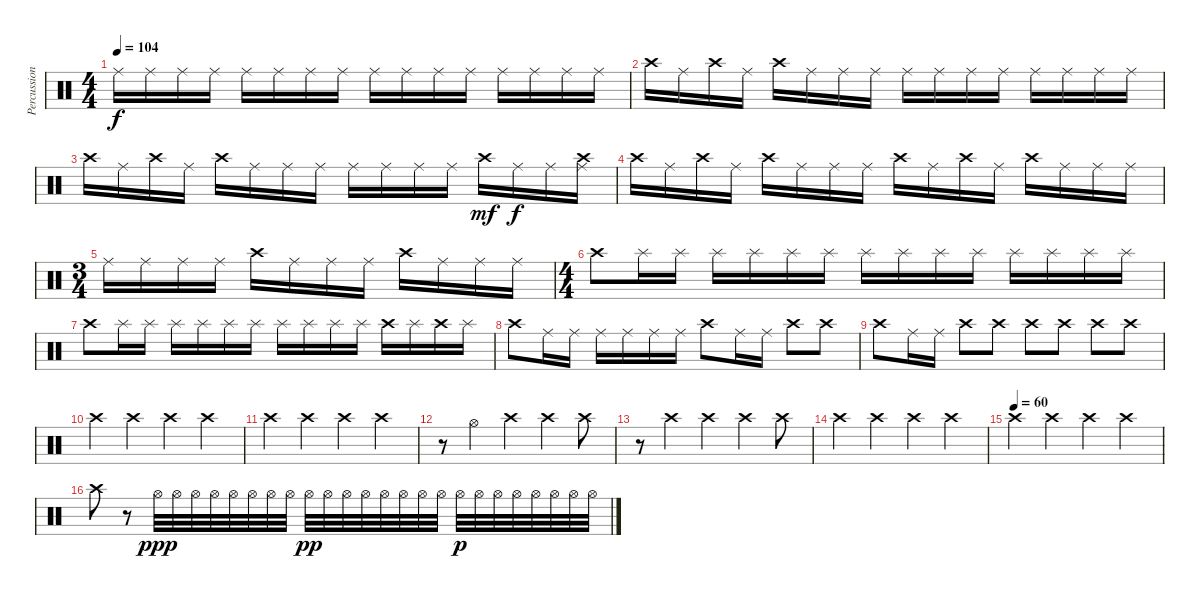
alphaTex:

\track ("Percussion2" "Percussion") {instrument percussion}
\staff {score}
\articulation defaults
\ts (4 4)
\tempo 104
\clef neutral
\ks c "Ride (middle)".16{dy f} "Ride (middle)".16 "Ride (middle)".16 "Ride (middle)".16 "Ride (middle)".16 "Ride (middle)".16 "Ride (middle)".16 "Ride (middle)".16 "Ride (middle)".16 "Ride (middle)".16 "Ride (middle)".16 "Ride (middle)".16 "Ride (middle)".16 "Ride (middle)".16 "Ride (middle)".16 "Ride (middle)".16
|
"Crash high (hit)".16 "Ride (middle)".16 "Crash high (hit)".16 "Ride (middle)".16 "Crash high (hit)".16 "Ride (middle)".16 "Ride (middle)".16 "Ride (middle)".16 "Ride (middle)".16 "Ride (middle)".16 "Ride (middle)".16 "Ride (middle)".16 "Ride (middle)".16 "Ride (middle)".16 "Ride (middle)".16 "Ride (middle)".16 |
"Crash high (hit)".16 "Ride (middle)".16 "Crash high (hit)".16 "Ride (middle)".16 "Crash high (hit)".16 "Ride (middle)".16 "Ride (middle)".16 "Ride (middle)".16 "Ride (middle)".16 "Ride (middle)".16 "Ride (middle)".16 "Ride (middle)".16 "Crash high (hit)".16{dy mf} "Ride (middle)".16{dy f} "Ride (middle)".16 ("Crash high (hit)" "Ride (middle)").16 |
"Crash high (hit)".16 "Ride (middle)".16 "Crash high (hit)".16 "Ride (middle)".16 "Crash high (hit)".16 "Ride (middle)".16 "Ride (middle)".16 "Ride (middle)".16 "Crash high (hit)".16 "Ride (middle)".16 "Crash high (hit)".16 "Ride (middle)".16 "Crash high (hit)".16 "Ride (middle)".16 "Ride (middle)".16 "Ride (middle)".16 |
\ts (3 4)
"Ride (middle)".16 "Ride (middle)".16 "Ride (middle)".16 "Ride (middle)".16 "Crash high (hit)".16 "Ride (middle)".16 "Ride (middle)".16 "Ride (middle)".16 "Crash high (hit)".16 "Ride (middle)".16 "Ride (middle)".16 "Ride (middle)".16 |
\ts (4 4)
"Crash high (hit)".8 "Splash (hit)".16 "Splash (hit)".16 "Splash (hit)".16 "Splash (hit)".16 "Splash (hit)".16 "Splash (hit)".16 "Splash (hit)".16 "Splash (hit)".16 "Splash (hit)".16 "Splash (hit)".16 "Splash (hit)".16 "Splash (hit)".16 "Splash (hit)".16 "Splash (hit)".16 |
"Crash high (hit)".8 "Splash (hit)".16 "Splash (hit)".16 "Splash (hit)".16 "Splash (hit)".16 "Splash (hit)".16 "Splash (hit)".16 "Splash (hit)".16 "Splash (hit)".16 "Splash (hit)".16 "Splash (hit)".16 "Crash high (hit)".16 "Splash (hit)".16 "Crash high (hit)".16 "Splash (hit)".16 |
"Crash high (hit)".8 "Ride (middle)".16 "Ride (middle)".16 "Ride (middle)".16 "Ride (middle)".16 "Ride (middle)".16 "Ride (middle)".16 "Crash high (hit)".8 "Ride (middle)".16 "Ride (middle)".16 "Crash high (hit)".8 "Crash high (hit)".8 |
"Crash high (hit)".8 "Ride (middle)".16 "Ride (middle)".16 "Crash high (hit)".8 "Crash high (hit)".8 "Crash high (hit)".8 "Crash high (hit)".8 "Crash high (hit)".8 "Crash high (hit)".8 |
"Crash high (hit)".4 "Crash high (hit)".4 "Crash high (hit)".4 "Crash high (hit)".4 |
"Crash high (hit)".4 "Crash high (hit)".4 "Crash high (hit)".4 "Crash high (hit)".4 |
r.8 "Hi-Hat (open)".4 "Crash high (hit)".4 "Crash high (hit)".4 "Crash high (hit)".8 |
r.8 "Crash high (hit)".4 "Crash high (hit)".4 "Crash high (hit)".4 "Crash high (hit)".8 |
"Crash high (hit)".4 "Crash high (hit)".4 "Crash high (hit)".4 "Crash high (hit)".4 |
\tempo (60)
"Crash high (hit)".4 "Crash high (hit)".4 "Crash high (hit)".4 "Crash high (hit)".4 |
"Crash high (hit)".8 r.8 "Hi-Hat (open)".32{dy ppp} "Hi-Hat (open)".32 "Hi-Hat (open)".32 "Hi-Hat (open)".32 "Hi-Hat (open)".32 "Hi-Hat (open)".32 "Hi-Hat (open)".32 "Hi-Hat (open)".32 "Hi-Hat (open)".32{dy pp} "Hi-Hat (open)".32 "Hi-Hat (open)".32 "Hi-Hat (open)".32 "Hi-Hat (open)".32 "Hi-Hat (open)".32 "Hi-Hat (open)".32 "Hi-Hat (open)".32 "Hi-Hat (open)".32{dy p} "Hi-Hat (open)".32 "Hi-Hat (open)".32 "Hi-Hat (open)".32 "Hi-Hat (open)".32 "Hi-Hat (open)".32 "Hi-Hat (open)".32 "Hi-Hat (open)".32
